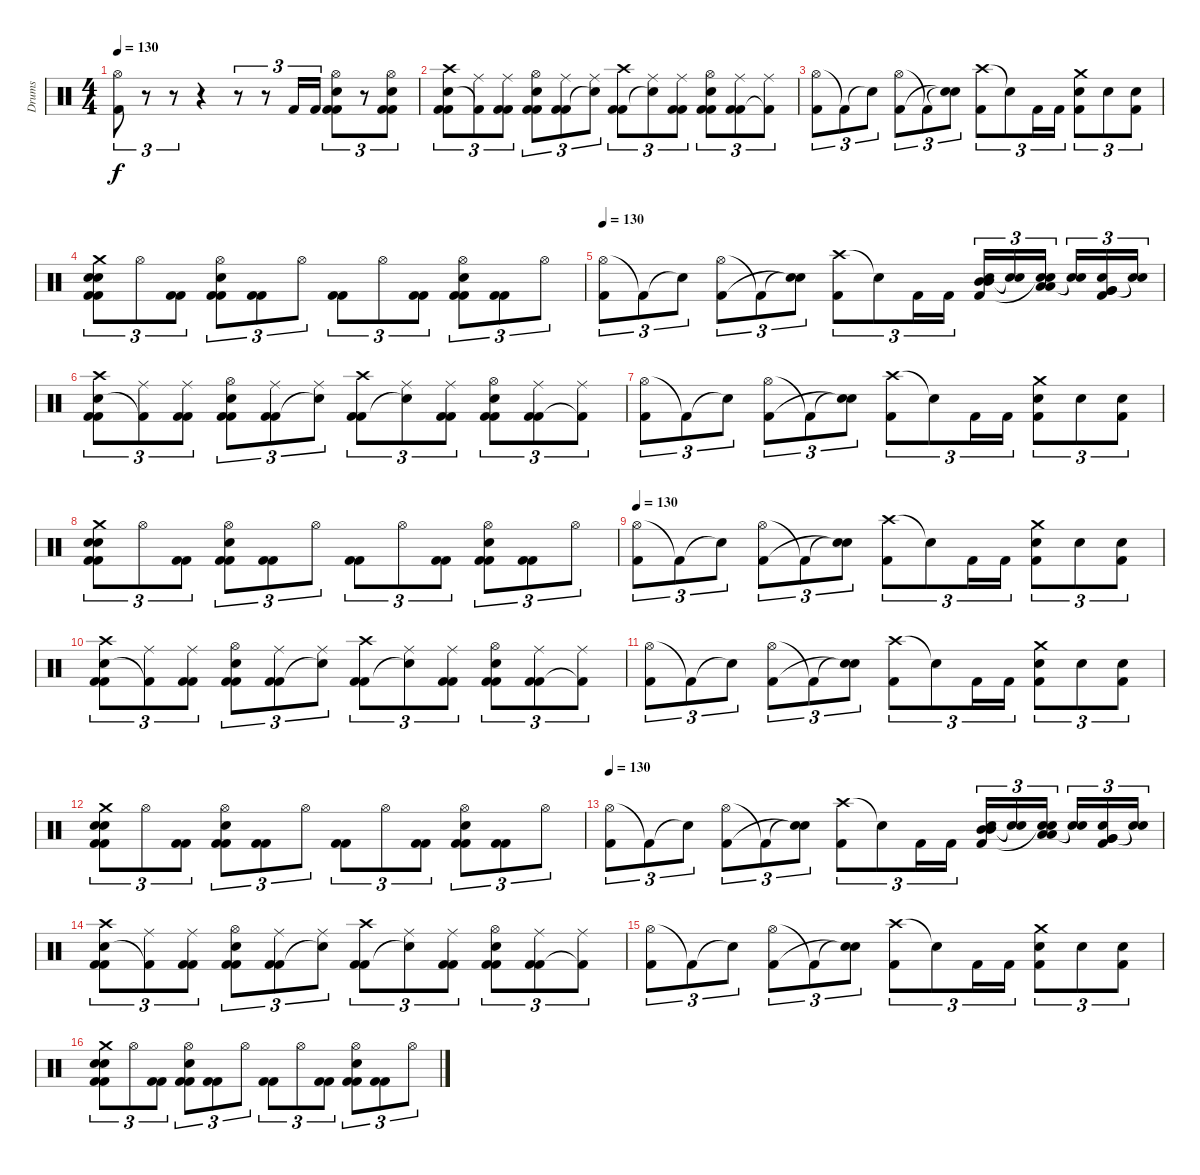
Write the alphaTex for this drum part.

\track ("Drums" "Drums") {instrument percussion}
\staff {score}
\articulation defaults
\ts (4 4)
\tempo 130
\clef neutral
\ks c
("Hi-Hat (open)" "Kick (hit) 2").8{tu (3 2) dy f} r.8{tu (3 2)} r.8{tu (3 2)} r.4 r.8{tu (3 2)} r.8{tu (3 2)} "Kick (hit) 2".16{tu (3 2)} "Kick (hit) 2".16{tu (3 2)} ("Hi-Hat (open)" "Snare (hit) 2" "Kick (hit) 2" "Kick (hit) 2").8{tu (3 2)} r.8{tu (3 2)} ("Hi-Hat (open)" "Snare (hit) 2" "Kick (hit) 2" "Kick (hit) 2").8{tu (3 2)} |
("Crash high (hit)" "Snare (hit) 2" "Kick (hit) 2" "Kick (hit) 2").8{tu (3 2)} ("Ride (middle)" "Kick (hit) 2"{t}).8{tu (3 2)} ("Ride (middle)" "Kick (hit) 2" "Kick (hit) 2").8{tu (3 2)} ("Hi-Hat (open)" "Snare (hit) 2" "Kick (hit) 2" "Kick (hit) 2").8{tu (3 2)} ("Ride (middle)" "Kick (hit) 2" "Kick (hit) 2").8{tu (3 2)} ("Ride (middle)" "Snare (hit)"{t}).8{tu (3 2)} ("Crash high (hit)" "Kick (hit) 2" "Kick (hit) 2").8{tu (3 2)} ("Ride (middle)" "Snare (hit)"{t}).8{tu (3 2)} ("Ride (middle)" "Kick (hit) 2" "Kick (hit) 2").8{tu (3 2)} ("Hi-Hat (open)" "Snare (hit) 2" "Kick (hit) 2" "Kick (hit) 2").8{tu (3 2)} ("Ride (middle)" "Kick (hit) 2" "Kick (hit) 2").8{tu (3 2)} ("Ride (middle)" "Kick (hit) 2"{t}).8{tu (3 2)} |
("Hi-Hat (open)" "Kick (hit) 2").8{tu (3 2)} "Kick (hit) 2"{t}.8{tu (3 2)} "Snare (hit)"{t}.8{tu (3 2)} ("Hi-Hat (open)" "Kick (hit) 2").8{tu (3 2)} "Kick (hit) 2"{t}.8{tu (3 2)} ("Snare (hit)"{t} "Snare (hit)"{t}).8{tu (3 2)} ("Crash high (hit)" "Kick (hit) 2").8{tu (3 2)} "Snare (hit)"{t}.8{tu (3 2)} "Kick (hit) 2".16{tu (3 2)} "Kick (hit) 2".16{tu (3 2)} ("Crash medium (hit)" "Snare (hit) 2" "Kick (hit) 2").8{tu (3 2)} "Snare (hit) 2".8{tu (3 2)} ("Snare (hit) 2" "Kick (hit) 2").8{tu (3 2)} |
("Crash medium (hit)" "Snare (hit) 2" "Snare (hit) 2" "Kick (hit) 2" "Kick (hit) 2").8{tu (3 2)} "Hi-Hat (open)".8{tu (3 2)} ("Kick (hit) 2" "Kick (hit) 2").8{tu (3 2)} ("Hi-Hat (open)" "Snare (hit) 2" "Kick (hit) 2" "Kick (hit) 2").8{tu (3 2)} ("Kick (hit) 2" "Kick (hit) 2").8{tu (3 2)} "Hi-Hat (open)".8{tu (3 2)} ("Kick (hit) 2" "Kick (hit) 2").8{tu (3 2)} "Hi-Hat (open)".8{tu (3 2)} ("Kick (hit) 2" "Kick (hit) 2").8{tu (3 2)} ("Hi-Hat (open)" "Snare (hit) 2" "Kick (hit) 2" "Kick (hit) 2").8{tu (3 2)} ("Kick (hit) 2" "Kick (hit) 2").8{tu (3 2)} "Hi-Hat (open)".8{tu (3 2)} |
\tempo 130
("Hi-Hat (open)" "Kick (hit) 2").8{tu (3 2)} "Kick (hit) 2"{t}.8{tu (3 2)} "Snare (hit)"{t}.8{tu (3 2)} ("Hi-Hat (open)" "Kick (hit) 2").8{tu (3 2)} "Kick (hit) 2"{t}.8{tu (3 2)} ("Snare (hit)"{t} "Snare (hit)"{t}).8{tu (3 2)} ("Crash high (hit)" "Kick (hit) 2").8{tu (3 2)} "Snare (hit)"{t}.8{tu (3 2)} "Kick (hit) 2".16{tu (3 2)} "Kick (hit) 2".16{tu (3 2)} ("Mid Tom (hit)" "Mid Tom (hit)" "Snare (hit) 2" "Kick (hit) 2").16{tu (3 2)} ("Snare (hit)"{t} "Snare (hit)"{t}).16{tu (3 2)} ("Low Tom (hit)" "Low Tom (hit)" "Snare (hit) 2" "Snare (hit)"{t}).16{tu (3 2)} ("Snare (hit)"{t} "Snare (hit)"{t}).16{tu (3 2)} ("Very Low Tom (hit)" "Very Low Tom (hit)" "Snare (hit) 2" "Kick (hit) 2").16{tu (3 2)} ("Snare (hit)"{t} "Snare (hit)"{t}).16{tu (3 2)} |
("Crash high (hit)" "Snare (hit) 2" "Kick (hit) 2" "Kick (hit) 2").8{tu (3 2)} ("Ride (middle)" "Kick (hit) 2"{t}).8{tu (3 2)} ("Ride (middle)" "Kick (hit) 2" "Kick (hit) 2").8{tu (3 2)} ("Hi-Hat (open)" "Snare (hit) 2" "Kick (hit) 2" "Kick (hit) 2").8{tu (3 2)} ("Ride (middle)" "Kick (hit) 2" "Kick (hit) 2").8{tu (3 2)} ("Ride (middle)" "Snare (hit)"{t}).8{tu (3 2)} ("Crash high (hit)" "Kick (hit) 2" "Kick (hit) 2").8{tu (3 2)} ("Ride (middle)" "Snare (hit)"{t}).8{tu (3 2)} ("Ride (middle)" "Kick (hit) 2" "Kick (hit) 2").8{tu (3 2)} ("Hi-Hat (open)" "Snare (hit) 2" "Kick (hit) 2" "Kick (hit) 2").8{tu (3 2)} ("Ride (middle)" "Kick (hit) 2" "Kick (hit) 2").8{tu (3 2)} ("Ride (middle)" "Kick (hit) 2"{t}).8{tu (3 2)} |
("Hi-Hat (open)" "Kick (hit) 2").8{tu (3 2)} "Kick (hit) 2"{t}.8{tu (3 2)} "Snare (hit)"{t}.8{tu (3 2)} ("Hi-Hat (open)" "Kick (hit) 2").8{tu (3 2)} "Kick (hit) 2"{t}.8{tu (3 2)} ("Snare (hit)"{t} "Snare (hit)"{t}).8{tu (3 2)} ("Crash high (hit)" "Kick (hit) 2").8{tu (3 2)} "Snare (hit)"{t}.8{tu (3 2)} "Kick (hit) 2".16{tu (3 2)} "Kick (hit) 2".16{tu (3 2)} ("Crash medium (hit)" "Snare (hit) 2" "Kick (hit) 2").8{tu (3 2)} "Snare (hit) 2".8{tu (3 2)} ("Snare (hit) 2" "Kick (hit) 2").8{tu (3 2)} |
("Crash medium (hit)" "Snare (hit) 2" "Snare (hit) 2" "Kick (hit) 2" "Kick (hit) 2").8{tu (3 2)} "Hi-Hat (open)".8{tu (3 2)} ("Kick (hit) 2" "Kick (hit) 2").8{tu (3 2)} ("Hi-Hat (open)" "Snare (hit) 2" "Kick (hit) 2" "Kick (hit) 2").8{tu (3 2)} ("Kick (hit) 2" "Kick (hit) 2").8{tu (3 2)} "Hi-Hat (open)".8{tu (3 2)} ("Kick (hit) 2" "Kick (hit) 2").8{tu (3 2)} "Hi-Hat (open)".8{tu (3 2)} ("Kick (hit) 2" "Kick (hit) 2").8{tu (3 2)} ("Hi-Hat (open)" "Snare (hit) 2" "Kick (hit) 2" "Kick (hit) 2").8{tu (3 2)} ("Kick (hit) 2" "Kick (hit) 2").8{tu (3 2)} "Hi-Hat (open)".8{tu (3 2)} |
\tempo 130
("Hi-Hat (open)" "Kick (hit) 2").8{tu (3 2)} "Kick (hit) 2"{t}.8{tu (3 2)} "Snare (hit)"{t}.8{tu (3 2)} ("Hi-Hat (open)" "Kick (hit) 2").8{tu (3 2)} "Kick (hit) 2"{t}.8{tu (3 2)} ("Snare (hit)"{t} "Snare (hit)"{t}).8{tu (3 2)} ("Crash high (hit)" "Kick (hit) 2").8{tu (3 2)} "Snare (hit)"{t}.8{tu (3 2)} "Kick (hit) 2".16{tu (3 2)} "Kick (hit) 2".16{tu (3 2)} ("Crash medium (hit)" "Snare (hit) 2" "Kick (hit) 2").8{tu (3 2)} "Snare (hit) 2".8{tu (3 2)} ("Snare (hit) 2" "Kick (hit) 2").8{tu (3 2)} |
("Crash high (hit)" "Snare (hit) 2" "Kick (hit) 2" "Kick (hit) 2").8{tu (3 2)} ("Ride (middle)" "Kick (hit) 2"{t}).8{tu (3 2)} ("Ride (middle)" "Kick (hit) 2" "Kick (hit) 2").8{tu (3 2)} ("Hi-Hat (open)" "Snare (hit) 2" "Kick (hit) 2" "Kick (hit) 2").8{tu (3 2)} ("Ride (middle)" "Kick (hit) 2" "Kick (hit) 2").8{tu (3 2)} ("Ride (middle)" "Snare (hit)"{t}).8{tu (3 2)} ("Crash high (hit)" "Kick (hit) 2" "Kick (hit) 2").8{tu (3 2)} ("Ride (middle)" "Snare (hit)"{t}).8{tu (3 2)} ("Ride (middle)" "Kick (hit) 2" "Kick (hit) 2").8{tu (3 2)} ("Hi-Hat (open)" "Snare (hit) 2" "Kick (hit) 2" "Kick (hit) 2").8{tu (3 2)} ("Ride (middle)" "Kick (hit) 2" "Kick (hit) 2").8{tu (3 2)} ("Ride (middle)" "Kick (hit) 2"{t}).8{tu (3 2)} |
("Hi-Hat (open)" "Kick (hit) 2").8{tu (3 2)} "Kick (hit) 2"{t}.8{tu (3 2)} "Snare (hit)"{t}.8{tu (3 2)} ("Hi-Hat (open)" "Kick (hit) 2").8{tu (3 2)} "Kick (hit) 2"{t}.8{tu (3 2)} ("Snare (hit)"{t} "Snare (hit)"{t}).8{tu (3 2)} ("Crash high (hit)" "Kick (hit) 2").8{tu (3 2)} "Snare (hit)"{t}.8{tu (3 2)} "Kick (hit) 2".16{tu (3 2)} "Kick (hit) 2".16{tu (3 2)} ("Crash medium (hit)" "Snare (hit) 2" "Kick (hit) 2").8{tu (3 2)} "Snare (hit) 2".8{tu (3 2)} ("Snare (hit) 2" "Kick (hit) 2").8{tu (3 2)} |
("Crash medium (hit)" "Snare (hit) 2" "Snare (hit) 2" "Kick (hit) 2" "Kick (hit) 2").8{tu (3 2)} "Hi-Hat (open)".8{tu (3 2)} ("Kick (hit) 2" "Kick (hit) 2").8{tu (3 2)} ("Hi-Hat (open)" "Snare (hit) 2" "Kick (hit) 2" "Kick (hit) 2").8{tu (3 2)} ("Kick (hit) 2" "Kick (hit) 2").8{tu (3 2)} "Hi-Hat (open)".8{tu (3 2)} ("Kick (hit) 2" "Kick (hit) 2").8{tu (3 2)} "Hi-Hat (open)".8{tu (3 2)} ("Kick (hit) 2" "Kick (hit) 2").8{tu (3 2)} ("Hi-Hat (open)" "Snare (hit) 2" "Kick (hit) 2" "Kick (hit) 2").8{tu (3 2)} ("Kick (hit) 2" "Kick (hit) 2").8{tu (3 2)} "Hi-Hat (open)".8{tu (3 2)} |
\tempo 130
("Hi-Hat (open)" "Kick (hit) 2").8{tu (3 2)} "Kick (hit) 2"{t}.8{tu (3 2)} "Snare (hit)"{t}.8{tu (3 2)} ("Hi-Hat (open)" "Kick (hit) 2").8{tu (3 2)} "Kick (hit) 2"{t}.8{tu (3 2)} ("Snare (hit)"{t} "Snare (hit)"{t}).8{tu (3 2)} ("Crash high (hit)" "Kick (hit) 2").8{tu (3 2)} "Snare (hit)"{t}.8{tu (3 2)} "Kick (hit) 2".16{tu (3 2)} "Kick (hit) 2".16{tu (3 2)} ("Mid Tom (hit)" "Mid Tom (hit)" "Snare (hit) 2" "Kick (hit) 2").16{tu (3 2)} ("Snare (hit)"{t} "Snare (hit)"{t}).16{tu (3 2)} ("Low Tom (hit)" "Low Tom (hit)" "Snare (hit) 2" "Snare (hit)"{t}).16{tu (3 2)} ("Snare (hit)"{t} "Snare (hit)"{t}).16{tu (3 2)} ("Very Low Tom (hit)" "Very Low Tom (hit)" "Snare (hit) 2" "Kick (hit) 2").16{tu (3 2)} ("Snare (hit)"{t} "Snare (hit)"{t}).16{tu (3 2)} |
("Crash high (hit)" "Snare (hit) 2" "Kick (hit) 2" "Kick (hit) 2").8{tu (3 2)} ("Ride (middle)" "Kick (hit) 2"{t}).8{tu (3 2)} ("Ride (middle)" "Kick (hit) 2" "Kick (hit) 2").8{tu (3 2)} ("Hi-Hat (open)" "Snare (hit) 2" "Kick (hit) 2" "Kick (hit) 2").8{tu (3 2)} ("Ride (middle)" "Kick (hit) 2" "Kick (hit) 2").8{tu (3 2)} ("Ride (middle)" "Snare (hit)"{t}).8{tu (3 2)} ("Crash high (hit)" "Kick (hit) 2" "Kick (hit) 2").8{tu (3 2)} ("Ride (middle)" "Snare (hit)"{t}).8{tu (3 2)} ("Ride (middle)" "Kick (hit) 2" "Kick (hit) 2").8{tu (3 2)} ("Hi-Hat (open)" "Snare (hit) 2" "Kick (hit) 2" "Kick (hit) 2").8{tu (3 2)} ("Ride (middle)" "Kick (hit) 2" "Kick (hit) 2").8{tu (3 2)} ("Ride (middle)" "Kick (hit) 2"{t}).8{tu (3 2)} |
("Hi-Hat (open)" "Kick (hit) 2").8{tu (3 2)} "Kick (hit) 2"{t}.8{tu (3 2)} "Snare (hit)"{t}.8{tu (3 2)} ("Hi-Hat (open)" "Kick (hit) 2").8{tu (3 2)} "Kick (hit) 2"{t}.8{tu (3 2)} ("Snare (hit)"{t} "Snare (hit)"{t}).8{tu (3 2)} ("Crash high (hit)" "Kick (hit) 2").8{tu (3 2)} "Snare (hit)"{t}.8{tu (3 2)} "Kick (hit) 2".16{tu (3 2)} "Kick (hit) 2".16{tu (3 2)} ("Crash medium (hit)" "Snare (hit) 2" "Kick (hit) 2").8{tu (3 2)} "Snare (hit) 2".8{tu (3 2)} ("Snare (hit) 2" "Kick (hit) 2").8{tu (3 2)} |
("Crash medium (hit)" "Snare (hit) 2" "Snare (hit) 2" "Kick (hit) 2" "Kick (hit) 2").8{tu (3 2)} "Hi-Hat (open)".8{tu (3 2)} ("Kick (hit) 2" "Kick (hit) 2").8{tu (3 2)} ("Hi-Hat (open)" "Snare (hit) 2" "Kick (hit) 2" "Kick (hit) 2").8{tu (3 2)} ("Kick (hit) 2" "Kick (hit) 2").8{tu (3 2)} "Hi-Hat (open)".8{tu (3 2)} ("Kick (hit) 2" "Kick (hit) 2").8{tu (3 2)} "Hi-Hat (open)".8{tu (3 2)} ("Kick (hit) 2" "Kick (hit) 2").8{tu (3 2)} ("Hi-Hat (open)" "Snare (hit) 2" "Kick (hit) 2" "Kick (hit) 2").8{tu (3 2)} ("Kick (hit) 2" "Kick (hit) 2").8{tu (3 2)} "Hi-Hat (open)".8{tu (3 2)}
